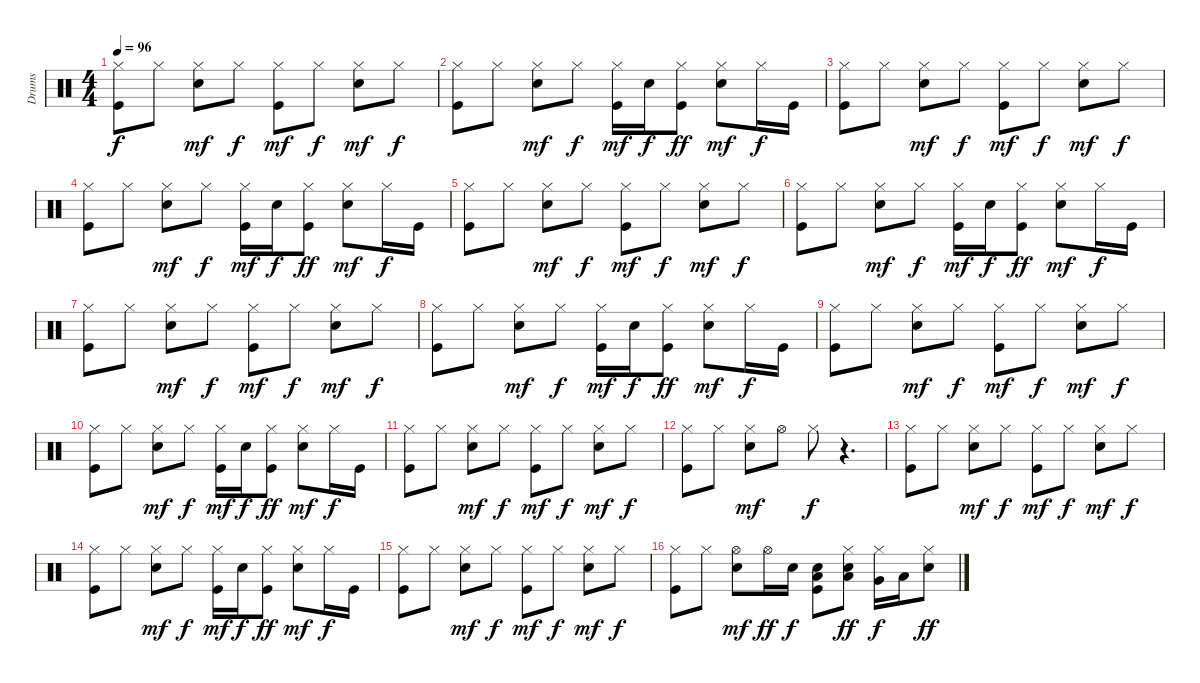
\track ("Drums" "Drums") {instrument percussion}
\staff {score}
\articulation defaults
\ts (4 4)
\tempo 96
\clef neutral
\ks c
("Kick (hit)" "Hi-Hat (closed)").8{dy f} "Hi-Hat (closed)".8 ("Hi-Hat (closed)" "Electric Snare (hit)").8{dy mf} "Hi-Hat (closed)".8{dy f} ("Kick (hit)" "Hi-Hat (closed)").8{dy mf} "Hi-Hat (closed)".8{dy f} ("Hi-Hat (closed)" "Electric Snare (hit)").8{dy mf} "Hi-Hat (closed)".8{dy f} |
("Kick (hit)" "Hi-Hat (closed)").8 "Hi-Hat (closed)".8 ("Hi-Hat (closed)" "Electric Snare (hit)").8{dy mf} "Hi-Hat (closed)".8{dy f} ("Kick (hit)" "Hi-Hat (closed)").16{dy mf} "Electric Snare (hit)".16{dy f} ("Kick (hit)" "Hi-Hat (closed)").8{dy ff} ("Hi-Hat (closed)" "Electric Snare (hit)").8{dy mf} "Hi-Hat (closed)".16{dy f} "Kick (hit)".16 |
("Kick (hit)" "Hi-Hat (closed)").8 "Hi-Hat (closed)".8 ("Hi-Hat (closed)" "Electric Snare (hit)").8{dy mf} "Hi-Hat (closed)".8{dy f} ("Kick (hit)" "Hi-Hat (closed)").8{dy mf} "Hi-Hat (closed)".8{dy f} ("Hi-Hat (closed)" "Electric Snare (hit)").8{dy mf} "Hi-Hat (closed)".8{dy f} |
("Kick (hit)" "Hi-Hat (closed)").8 "Hi-Hat (closed)".8 ("Hi-Hat (closed)" "Electric Snare (hit)").8{dy mf} "Hi-Hat (closed)".8{dy f} ("Kick (hit)" "Hi-Hat (closed)").16{dy mf} "Electric Snare (hit)".16{dy f} ("Kick (hit)" "Hi-Hat (closed)").8{dy ff} ("Hi-Hat (closed)" "Electric Snare (hit)").8{dy mf} "Hi-Hat (closed)".16{dy f} "Kick (hit)".16 |
("Kick (hit)" "Hi-Hat (closed)").8 "Hi-Hat (closed)".8 ("Hi-Hat (closed)" "Electric Snare (hit)").8{dy mf} "Hi-Hat (closed)".8{dy f} ("Kick (hit)" "Hi-Hat (closed)").8{dy mf} "Hi-Hat (closed)".8{dy f} ("Hi-Hat (closed)" "Electric Snare (hit)").8{dy mf} "Hi-Hat (closed)".8{dy f} |
("Kick (hit)" "Hi-Hat (closed)").8 "Hi-Hat (closed)".8 ("Hi-Hat (closed)" "Electric Snare (hit)").8{dy mf} "Hi-Hat (closed)".8{dy f} ("Kick (hit)" "Hi-Hat (closed)").16{dy mf} "Electric Snare (hit)".16{dy f} ("Kick (hit)" "Hi-Hat (closed)").8{dy ff} ("Hi-Hat (closed)" "Electric Snare (hit)").8{dy mf} "Hi-Hat (closed)".16{dy f} "Kick (hit)".16 |
("Kick (hit)" "Hi-Hat (closed)").8 "Hi-Hat (closed)".8 ("Hi-Hat (closed)" "Electric Snare (hit)").8{dy mf} "Hi-Hat (closed)".8{dy f} ("Kick (hit)" "Hi-Hat (closed)").8{dy mf} "Hi-Hat (closed)".8{dy f} ("Hi-Hat (closed)" "Electric Snare (hit)").8{dy mf} "Hi-Hat (closed)".8{dy f} |
("Kick (hit)" "Hi-Hat (closed)").8 "Hi-Hat (closed)".8 ("Hi-Hat (closed)" "Electric Snare (hit)").8{dy mf} "Hi-Hat (closed)".8{dy f} ("Kick (hit)" "Hi-Hat (closed)").16{dy mf} "Electric Snare (hit)".16{dy f} ("Kick (hit)" "Hi-Hat (closed)").8{dy ff} ("Hi-Hat (closed)" "Electric Snare (hit)").8{dy mf} "Hi-Hat (closed)".16{dy f} "Kick (hit)".16 |
("Kick (hit)" "Hi-Hat (closed)").8 "Hi-Hat (closed)".8 ("Hi-Hat (closed)" "Electric Snare (hit)").8{dy mf} "Hi-Hat (closed)".8{dy f} ("Kick (hit)" "Hi-Hat (closed)").8{dy mf} "Hi-Hat (closed)".8{dy f} ("Hi-Hat (closed)" "Electric Snare (hit)").8{dy mf} "Hi-Hat (closed)".8{dy f} |
("Kick (hit)" "Hi-Hat (closed)").8 "Hi-Hat (closed)".8 ("Hi-Hat (closed)" "Electric Snare (hit)").8{dy mf} "Hi-Hat (closed)".8{dy f} ("Kick (hit)" "Hi-Hat (closed)").16{dy mf} "Electric Snare (hit)".16{dy f} ("Kick (hit)" "Hi-Hat (closed)").8{dy ff} ("Hi-Hat (closed)" "Electric Snare (hit)").8{dy mf} "Hi-Hat (closed)".16{dy f} "Kick (hit)".16 |
("Kick (hit)" "Hi-Hat (closed)").8 "Hi-Hat (closed)".8 ("Hi-Hat (closed)" "Electric Snare (hit)").8{dy mf} "Hi-Hat (closed)".8{dy f} ("Kick (hit)" "Hi-Hat (closed)").8{dy mf} "Hi-Hat (closed)".8{dy f} ("Hi-Hat (closed)" "Electric Snare (hit)").8{dy mf} "Hi-Hat (closed)".8{dy f} |
("Kick (hit)" "Hi-Hat (closed)").8 "Hi-Hat (closed)".8 ("Hi-Hat (closed)" "Electric Snare (hit)").8{dy mf} "Hi-Hat (open)".8 "Hi-Hat (closed)".8{dy f} r.4{d} |
("Kick (hit)" "Hi-Hat (closed)").8 "Hi-Hat (closed)".8 ("Hi-Hat (closed)" "Electric Snare (hit)").8{dy mf} "Hi-Hat (closed)".8{dy f} ("Kick (hit)" "Hi-Hat (closed)").8{dy mf} "Hi-Hat (closed)".8{dy f} ("Hi-Hat (closed)" "Electric Snare (hit)").8{dy mf} "Hi-Hat (closed)".8{dy f} |
("Kick (hit)" "Hi-Hat (closed)").8 "Hi-Hat (closed)".8 ("Hi-Hat (closed)" "Electric Snare (hit)").8{dy mf} "Hi-Hat (closed)".8{dy f} ("Kick (hit)" "Hi-Hat (closed)").16{dy mf} "Electric Snare (hit)".16{dy f} ("Kick (hit)" "Hi-Hat (closed)").8{dy ff} ("Hi-Hat (closed)" "Electric Snare (hit)").8{dy mf} "Hi-Hat (closed)".16{dy f} "Kick (hit)".16 |
("Kick (hit)" "Hi-Hat (closed)").8 "Hi-Hat (closed)".8 ("Hi-Hat (closed)" "Electric Snare (hit)").8{dy mf} "Hi-Hat (closed)".8{dy f} ("Kick (hit)" "Hi-Hat (closed)").8{dy mf} "Hi-Hat (closed)".8{dy f} ("Hi-Hat (closed)" "Electric Snare (hit)").8{dy mf} "Hi-Hat (closed)".8{dy f} |
("Kick (hit)" "Hi-Hat (closed)").8 "Hi-Hat (closed)".8 ("Hi-Hat (open)" "Electric Snare (hit)").8{dy mf} "Hi-Hat (open)".16{dy ff} "Electric Snare (hit)".16{dy f} ("Kick (hit)" "Electric Snare (hit)" "Low Tom (hit)").8 ("Hi-Hat (closed)" "Electric Snare (hit)" "Low Floor Tom (hit)").8{dy ff} ("Hi-Hat (closed)" "Very Low Tom (hit)").16{dy f} "Low Floor Tom (hit)".16 ("Hi-Hat (closed)" "Electric Snare (hit)").8{dy ff}
